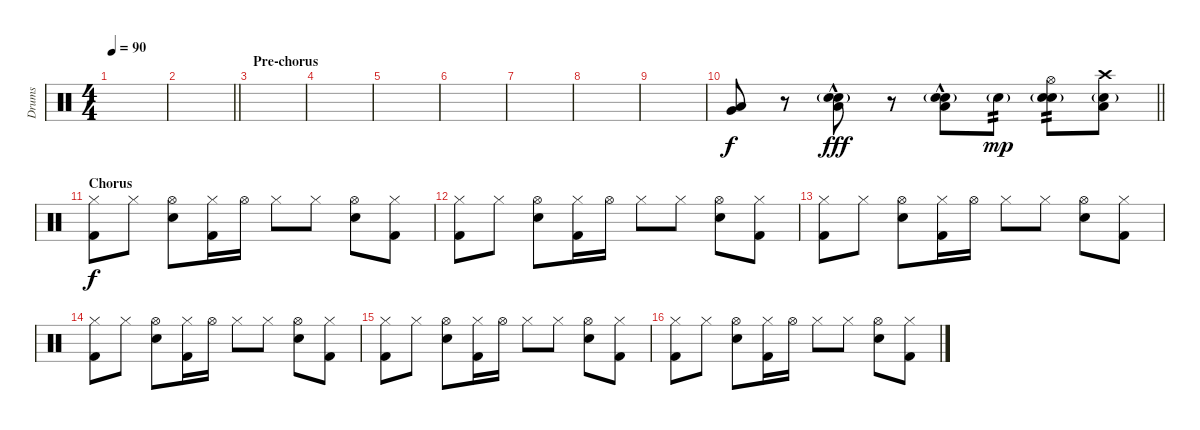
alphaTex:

\track ("Drums" "Drums") {instrument percussion}
\staff {score}
\articulation defaults
\ts (4 4)
\tempo 90
\clef neutral
\ks c
|
\barLineRight lightlight
|
\section ("" "Pre-chorus")
|
|
|
|
|
|
|
\barLineRight lightlight
("Low Tom (hit)" "Very Low Tom (hit)").8 r.8 ("Electric Snare (hit)"{g} "Snare (hit) 2"{hac} "Low Tom (hit)"{hac}).8{dy fff} r.8 ("Electric Snare (hit)"{g} "Snare (hit) 2"{hac} "Low Tom (hit)"{hac}).8 "Electric Snare (hit)"{g}.8{tp 2 dy mp} ("Electric Snare (hit)"{g} "Hi-Hat (open)" "Snare (hit) 2").8{tp 2} ("Electric Snare (hit)"{g} "Crash high (hit)" "Low Tom (hit)").8 |
\section ("" "Chorus")
("Kick (hit) 2" "Hi-Hat (closed)").8{dy f} "Hi-Hat (closed)".8 ("Snare (hit) 2" "Hi-Hat (open)").8 ("Kick (hit) 2" "Hi-Hat (closed)").16 "Hi-Hat (open)".16 "Hi-Hat (closed)".8 "Hi-Hat (closed)".8 ("Snare (hit) 2" "Hi-Hat (open)").8 ("Kick (hit) 2" "Hi-Hat (closed)").8 |
("Kick (hit) 2" "Hi-Hat (closed)").8 "Hi-Hat (closed)".8 ("Snare (hit) 2" "Hi-Hat (open)").8 ("Kick (hit) 2" "Hi-Hat (closed)").16 "Hi-Hat (open)".16 "Hi-Hat (closed)".8 "Hi-Hat (closed)".8 ("Snare (hit) 2" "Hi-Hat (open)").8 ("Kick (hit) 2" "Hi-Hat (closed)").8 |
("Kick (hit) 2" "Hi-Hat (closed)").8 "Hi-Hat (closed)".8 ("Snare (hit) 2" "Hi-Hat (open)").8 ("Kick (hit) 2" "Hi-Hat (closed)").16 "Hi-Hat (open)".16 "Hi-Hat (closed)".8 "Hi-Hat (closed)".8 ("Snare (hit) 2" "Hi-Hat (open)").8 ("Kick (hit) 2" "Hi-Hat (closed)").8 |
("Kick (hit) 2" "Hi-Hat (closed)").8 "Hi-Hat (closed)".8 ("Snare (hit) 2" "Hi-Hat (open)").8 ("Kick (hit) 2" "Hi-Hat (closed)").16 "Hi-Hat (open)".16 "Hi-Hat (closed)".8 "Hi-Hat (closed)".8 ("Snare (hit) 2" "Hi-Hat (open)").8 ("Kick (hit) 2" "Hi-Hat (closed)").8 |
("Kick (hit) 2" "Hi-Hat (closed)").8 "Hi-Hat (closed)".8 ("Snare (hit) 2" "Hi-Hat (open)").8 ("Kick (hit) 2" "Hi-Hat (closed)").16 "Hi-Hat (open)".16 "Hi-Hat (closed)".8 "Hi-Hat (closed)".8 ("Snare (hit) 2" "Hi-Hat (open)").8 ("Kick (hit) 2" "Hi-Hat (closed)").8 |
("Kick (hit) 2" "Hi-Hat (closed)").8 "Hi-Hat (closed)".8 ("Snare (hit) 2" "Hi-Hat (open)").8 ("Kick (hit) 2" "Hi-Hat (closed)").16 "Hi-Hat (open)".16 "Hi-Hat (closed)".8 "Hi-Hat (closed)".8 ("Snare (hit) 2" "Hi-Hat (open)").8 ("Kick (hit) 2" "Hi-Hat (closed)").8
